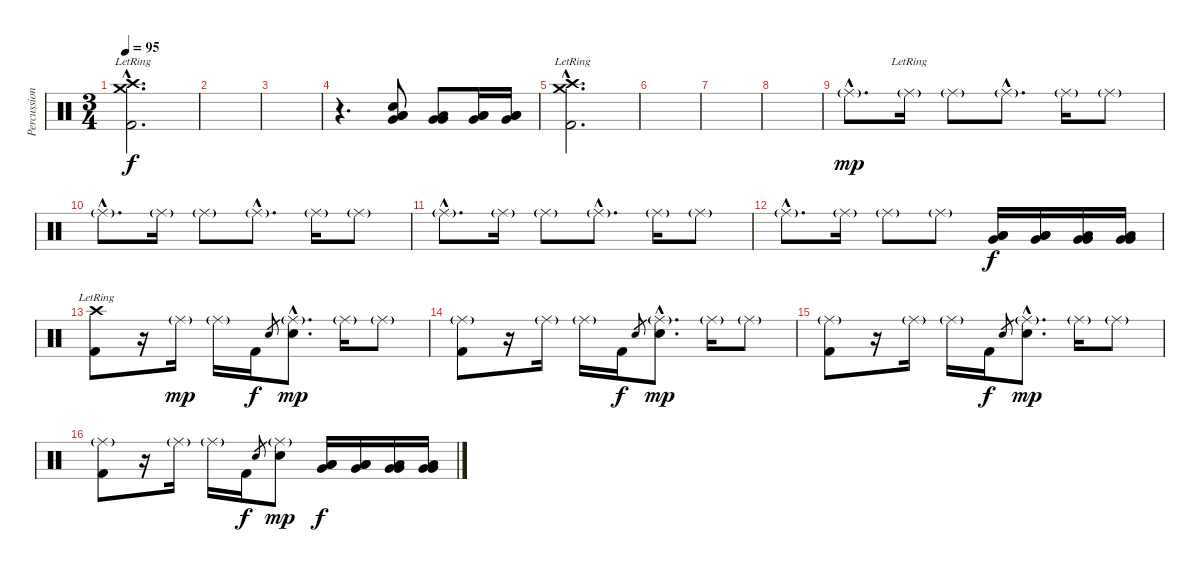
\track ("Percussion I" "Percussion") {instrument percussion}
\staff {score}
\articulation defaults
\ts (3 4)
\tempo 95
\clef neutral
\ks c
("Crash high (hit)"{hac lr} "Crash medium (hit)"{hac lr} "Kick (hit) 2"{hac}).2{d dy f} |
|
|
r.4{d} ("Electric Snare (hit)" "Low Tom (hit)" "Low Tom (hit)" "Very Low Tom (hit)").8 ("Very Low Tom (hit)" "Very Low Tom (hit)" "Low Floor Tom (hit)").8 ("Low Tom (hit)" "Low Tom (hit)" "Very Low Tom (hit)").16 ("Low Tom (hit)" "Low Tom (hit)" "Very Low Tom (hit)").16 |
("Crash high (hit)"{hac lr} "Crash medium (hit)"{hac lr} "Kick (hit) 2"{hac}).2{d} |
|
|
|
"Ride (middle)"{g hac}.8{d dy mp} "Ride (middle)"{g lr}.16 "Ride (middle)"{g}.8 "Ride (middle)"{g hac}.8{d} "Ride (middle)"{g}.16 "Ride (middle)"{g}.8 |
"Ride (middle)"{g hac}.8{d} "Ride (middle)"{g}.16 "Ride (middle)"{g}.8 "Ride (middle)"{g hac}.8{d} "Ride (middle)"{g}.16 "Ride (middle)"{g}.8 |
"Ride (middle)"{g hac}.8{d} "Ride (middle)"{g}.16 "Ride (middle)"{g}.8 "Ride (middle)"{g hac}.8{d} "Ride (middle)"{g}.16 "Ride (middle)"{g}.8 |
"Ride (middle)"{g hac}.8{d} "Ride (middle)"{g}.16 "Ride (middle)"{g}.8 "Ride (middle)"{g}.8 ("Low Tom (hit)" "Low Tom (hit)" "Very Low Tom (hit)").16{dy f} ("Low Tom (hit)" "Low Tom (hit)" "Very Low Tom (hit)").16 ("Very Low Tom (hit)" "Very Low Tom (hit)" "Low Floor Tom (hit)").16 ("Very Low Tom (hit)" "Very Low Tom (hit)" "Low Floor Tom (hit)").16 |
("Crash high (hit)"{lr} "Kick (hit) 2").8 r.16 "Ride (middle)"{g}.16{dy mp} "Ride (middle)"{g}.16 "Kick (hit) 2".16{dy f} "Electric Snare (hit)".8{gr} ("Ride (middle)"{g hac} "Electric Snare (hit)"{hac}).8{d dy mp} "Ride (middle)"{g}.16 "Ride (middle)"{g}.8 |
("Ride (middle)"{g} "Kick (hit) 2").8 r.16 "Ride (middle)"{g}.16 "Ride (middle)"{g}.16 "Kick (hit) 2".16{dy f} "Electric Snare (hit)".8{gr} ("Ride (middle)"{g hac} "Electric Snare (hit)"{hac}).8{d dy mp} "Ride (middle)"{g}.16 "Ride (middle)"{g}.8 |
("Ride (middle)"{g} "Kick (hit) 2").8 r.16 "Ride (middle)"{g}.16 "Ride (middle)"{g}.16 "Kick (hit) 2".16{dy f} "Electric Snare (hit)".8{gr} ("Ride (middle)"{g hac} "Electric Snare (hit)"{hac}).8{d dy mp} "Ride (middle)"{g}.16 "Ride (middle)"{g}.8 |
("Ride (middle)"{g} "Kick (hit) 2").8 r.16 "Ride (middle)"{g}.16 "Ride (middle)"{g}.16 "Kick (hit) 2".16{dy f} "Electric Snare (hit)".8{gr} ("Ride (middle)"{g} "Electric Snare (hit)").8{dy mp} ("Low Tom (hit)" "Low Tom (hit)" "Very Low Tom (hit)").16{dy f} ("Low Tom (hit)" "Low Tom (hit)" "Very Low Tom (hit)").16 ("Very Low Tom (hit)" "Very Low Tom (hit)" "Low Floor Tom (hit)").16 ("Very Low Tom (hit)" "Very Low Tom (hit)" "Low Floor Tom (hit)").16
